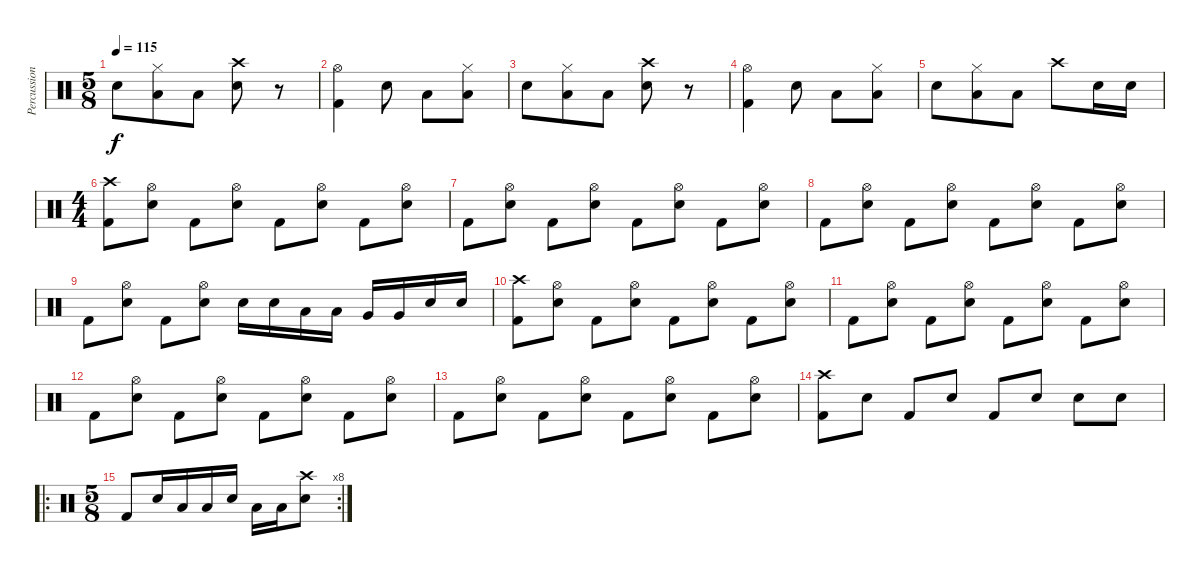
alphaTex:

\track ("Percussion" "Percussion") {instrument percussion}
\staff {score}
\articulation defaults
\ts (5 8)
\tempo 115
\clef neutral
\ks c "Electric Snare (hit)".8{dy f}
("Hi-Hat (closed)" "Low Tom (hit)").8 "Low Tom (hit)".8 ("Crash high (hit)" "Electric Snare (hit)").8 r.8 |
("Hi-Hat (open)" "Kick (hit) 2").4 "Electric Snare (hit)".8 "Low Tom (hit)".8 ("Hi-Hat (closed)" "Low Tom (hit)").8 |
"Electric Snare (hit)".8 ("Hi-Hat (closed)" "Low Tom (hit)").8 "Low Tom (hit)".8 ("Crash high (hit)" "Electric Snare (hit)").8 r.8 |
("Hi-Hat (open)" "Kick (hit) 2").4 "Electric Snare (hit)".8 "Low Tom (hit)".8 ("Hi-Hat (closed)" "Low Tom (hit)").8 |
"Electric Snare (hit)".8 ("Hi-Hat (closed)" "Low Tom (hit)").8 "Low Tom (hit)".8 "Crash high (hit)".8 "Electric Snare (hit)".16 "Electric Snare (hit)".16 |
\ts (4 4)
("Crash high (hit)" "Kick (hit) 2").8 ("Hi-Hat (open)" "Electric Snare (hit)").8 "Kick (hit) 2".8 ("Hi-Hat (open)" "Electric Snare (hit)").8 "Kick (hit) 2".8 ("Hi-Hat (open)" "Electric Snare (hit)").8 "Kick (hit) 2".8 ("Hi-Hat (open)" "Electric Snare (hit)").8 |
"Kick (hit) 2".8 ("Hi-Hat (open)" "Electric Snare (hit)").8 "Kick (hit) 2".8 ("Hi-Hat (open)" "Electric Snare (hit)").8 "Kick (hit) 2".8 ("Hi-Hat (open)" "Electric Snare (hit)").8 "Kick (hit) 2".8 ("Hi-Hat (open)" "Electric Snare (hit)").8 |
"Kick (hit) 2".8 ("Hi-Hat (open)" "Electric Snare (hit)").8 "Kick (hit) 2".8 ("Hi-Hat (open)" "Electric Snare (hit)").8 "Kick (hit) 2".8 ("Hi-Hat (open)" "Electric Snare (hit)").8 "Kick (hit) 2".8 ("Hi-Hat (open)" "Electric Snare (hit)").8 |
"Kick (hit) 2".8 ("Hi-Hat (open)" "Electric Snare (hit)").8 "Kick (hit) 2".8 ("Hi-Hat (open)" "Electric Snare (hit)").8 "Electric Snare (hit)".16 "Electric Snare (hit)".16 "Low Tom (hit)".16 "Low Tom (hit)".16 "Very Low Tom (hit)".16 "Very Low Tom (hit)".16 "Electric Snare (hit)".16 "Electric Snare (hit)".16 |
("Crash high (hit)" "Kick (hit) 2").8 ("Hi-Hat (open)" "Electric Snare (hit)").8 "Kick (hit) 2".8 ("Hi-Hat (open)" "Electric Snare (hit)").8 "Kick (hit) 2".8 ("Hi-Hat (open)" "Electric Snare (hit)").8 "Kick (hit) 2".8 ("Hi-Hat (open)" "Electric Snare (hit)").8 |
"Kick (hit) 2".8 ("Hi-Hat (open)" "Electric Snare (hit)").8 "Kick (hit) 2".8 ("Hi-Hat (open)" "Electric Snare (hit)").8 "Kick (hit) 2".8 ("Hi-Hat (open)" "Electric Snare (hit)").8 "Kick (hit) 2".8 ("Hi-Hat (open)" "Electric Snare (hit)").8 |
"Kick (hit) 2".8 ("Hi-Hat (open)" "Electric Snare (hit)").8 "Kick (hit) 2".8 ("Hi-Hat (open)" "Electric Snare (hit)").8 "Kick (hit) 2".8 ("Hi-Hat (open)" "Electric Snare (hit)").8 "Kick (hit) 2".8 ("Hi-Hat (open)" "Electric Snare (hit)").8 |
"Kick (hit) 2".8 ("Hi-Hat (open)" "Electric Snare (hit)").8 "Kick (hit) 2".8 ("Hi-Hat (open)" "Electric Snare (hit)").8 "Kick (hit) 2".8 ("Hi-Hat (open)" "Electric Snare (hit)").8 "Kick (hit) 2".8 ("Hi-Hat (open)" "Electric Snare (hit)").8 |
("Crash high (hit)" "Kick (hit) 2").8 "Electric Snare (hit)".8 "Kick (hit) 2".8 "Electric Snare (hit)".8 "Kick (hit) 2".8 "Electric Snare (hit)".8 "Electric Snare (hit)".8 "Electric Snare (hit)".8 |
\ro
\rc 8
\ts (5 8)
"Kick (hit) 2".8 "Electric Snare (hit)".16 "Low Tom (hit)".16 "Low Tom (hit)".16 "Electric Snare (hit)".16 "Low Tom (hit)".16 "Low Tom (hit)".16 ("Crash high (hit)" "Electric Snare (hit)").8
